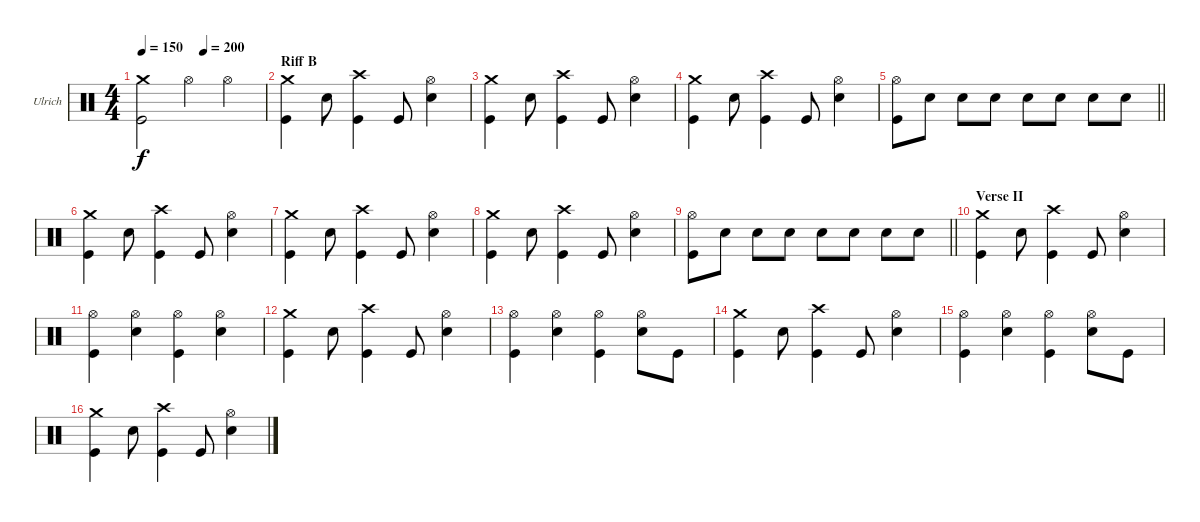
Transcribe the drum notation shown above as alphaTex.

\bracketExtendMode groupsimilarinstruments
\firstSystemTrackNameOrientation horizontal
\otherSystemsTrackNameOrientation horizontal
\track ("Drumkit" "Ulrich") {instrument percussion}
\staff {score}
\articulation defaults
\ts (4 4)
\tempo 150
\tempo (200 0.5)
\clef neutral
\ks c
("Crash medium (hit)" "Kick (hit)").2{dy f} "Hi-Hat (open)".4 "Hi-Hat (open)".4 |
\beaming (8 2 2 2 2)
\section ("" "Riff B")
("Crash medium (hit)" "Kick (hit)").4 "Snare (hit) 2".8 ("Crash high (hit)" "Kick (hit)").4 "Kick (hit)".8 ("Hi-Hat (open)" "Snare (hit) 2").4 |
("Crash medium (hit)" "Kick (hit)").4 "Snare (hit) 2".8 ("Crash high (hit)" "Kick (hit)").4 "Kick (hit)".8 ("Hi-Hat (open)" "Snare (hit) 2").4 |
("Crash medium (hit)" "Kick (hit)").4 "Snare (hit) 2".8 ("Crash high (hit)" "Kick (hit)").4 "Kick (hit)".8 ("Hi-Hat (open)" "Snare (hit) 2").4 |
\barLineRight lightlight
("Hi-Hat (open)" "Kick (hit)").8 "Snare (hit) 2".8 "Snare (hit) 2".8 "Snare (hit) 2".8 "Snare (hit) 2".8 "Snare (hit) 2".8 "Snare (hit) 2".8 "Snare (hit) 2".8 |
("Crash medium (hit)" "Kick (hit)").4 "Snare (hit) 2".8 ("Crash high (hit)" "Kick (hit)").4 "Kick (hit)".8 ("Hi-Hat (open)" "Snare (hit) 2").4 |
("Crash medium (hit)" "Kick (hit)").4 "Snare (hit) 2".8 ("Crash high (hit)" "Kick (hit)").4 "Kick (hit)".8 ("Hi-Hat (open)" "Snare (hit) 2").4 |
("Crash medium (hit)" "Kick (hit)").4 "Snare (hit) 2".8 ("Crash high (hit)" "Kick (hit)").4 "Kick (hit)".8 ("Hi-Hat (open)" "Snare (hit) 2").4 |
\barLineRight lightlight
("Hi-Hat (open)" "Kick (hit)").8 "Snare (hit) 2".8 "Snare (hit) 2".8 "Snare (hit) 2".8 "Snare (hit) 2".8 "Snare (hit) 2".8 "Snare (hit) 2".8 "Snare (hit) 2".8 |
\section ("" "Verse II")
("Crash medium (hit)" "Kick (hit)").4 "Snare (hit) 2".8 ("Crash high (hit)" "Kick (hit)").4 "Kick (hit)".8 ("Hi-Hat (open)" "Snare (hit) 2").4 |
("Hi-Hat (open)" "Kick (hit)").4 ("Hi-Hat (open)" "Snare (hit) 2").4 ("Hi-Hat (open)" "Kick (hit)").4 ("Hi-Hat (open)" "Snare (hit) 2").4 |
("Crash medium (hit)" "Kick (hit)").4 "Snare (hit) 2".8 ("Crash high (hit)" "Kick (hit)").4 "Kick (hit)".8 ("Hi-Hat (open)" "Snare (hit) 2").4 |
("Hi-Hat (open)" "Kick (hit)").4 ("Hi-Hat (open)" "Snare (hit) 2").4 ("Hi-Hat (open)" "Kick (hit)").4 ("Hi-Hat (open)" "Snare (hit) 2").8 "Kick (hit)".8 |
("Crash medium (hit)" "Kick (hit)").4 "Snare (hit) 2".8 ("Crash high (hit)" "Kick (hit)").4 "Kick (hit)".8 ("Hi-Hat (open)" "Snare (hit) 2").4 |
("Hi-Hat (open)" "Kick (hit)").4 ("Hi-Hat (open)" "Snare (hit) 2").4 ("Hi-Hat (open)" "Kick (hit)").4 ("Hi-Hat (open)" "Snare (hit) 2").8 "Kick (hit)".8 |
("Crash medium (hit)" "Kick (hit)").4 "Snare (hit) 2".8 ("Crash high (hit)" "Kick (hit)").4 "Kick (hit)".8 ("Hi-Hat (open)" "Snare (hit) 2").4
